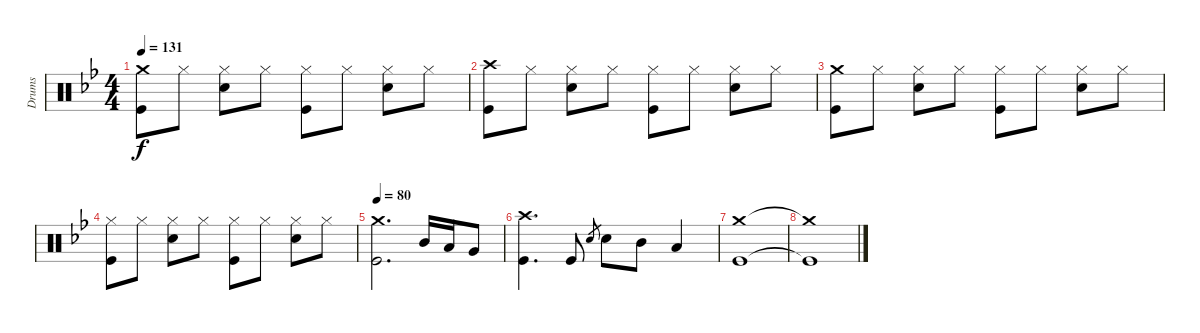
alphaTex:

\track ("Drums" "Drums") {instrument percussion}
\staff {score}
\articulation defaults
\ts (4 4)
\tempo 131
\clef neutral
\ks bb
("Crash medium (hit)" "Kick (hit)").8{dy f} "Hi-Hat (closed)".8 ("Hi-Hat (closed)" "Snare (hit) 2").8 "Hi-Hat (closed)".8 ("Hi-Hat (closed)" "Kick (hit)").8 "Hi-Hat (closed)".8 ("Hi-Hat (closed)" "Snare (hit) 2").8 "Hi-Hat (closed)".8 |
("Crash high (hit)" "Kick (hit)").8 "Hi-Hat (closed)".8 ("Hi-Hat (closed)" "Snare (hit) 2").8 "Hi-Hat (closed)".8 ("Hi-Hat (closed)" "Kick (hit)").8 "Hi-Hat (closed)".8 ("Hi-Hat (closed)" "Snare (hit) 2").8 "Hi-Hat (closed)".8 |
("Crash medium (hit)" "Kick (hit)").8 "Hi-Hat (closed)".8 ("Hi-Hat (closed)" "Snare (hit) 2").8 "Hi-Hat (closed)".8 ("Hi-Hat (closed)" "Kick (hit)").8 "Hi-Hat (closed)".8 ("Hi-Hat (closed)" "Snare (hit) 2").8 "Hi-Hat (closed)".8 |
("Hi-Hat (closed)" "Kick (hit)").8 "Hi-Hat (closed)".8 ("Hi-Hat (closed)" "Snare (hit) 2").8 "Hi-Hat (closed)".8 ("Hi-Hat (closed)" "Kick (hit)").8 "Hi-Hat (closed)".8 ("Hi-Hat (closed)" "Snare (hit) 2").8 "Hi-Hat (closed)".8 |
\tempo 80
("Crash medium (hit)" "Kick (hit)").2{d} "Mid Tom (hit)".16 "Low Tom (hit)".16 "Very Low Tom (hit)".8 |
("Crash high (hit)" "Kick (hit)").4{d} "Kick (hit)".8 "Snare (hit) 2".8{gr} "Snare (hit) 2".8 "Mid Tom (hit)".8 "Low Tom (hit)".4 |
("Crash medium (hit)" "Kick (hit)").1 |
("Crash medium (hit)"{t} "Kick (hit)"{t}).1
